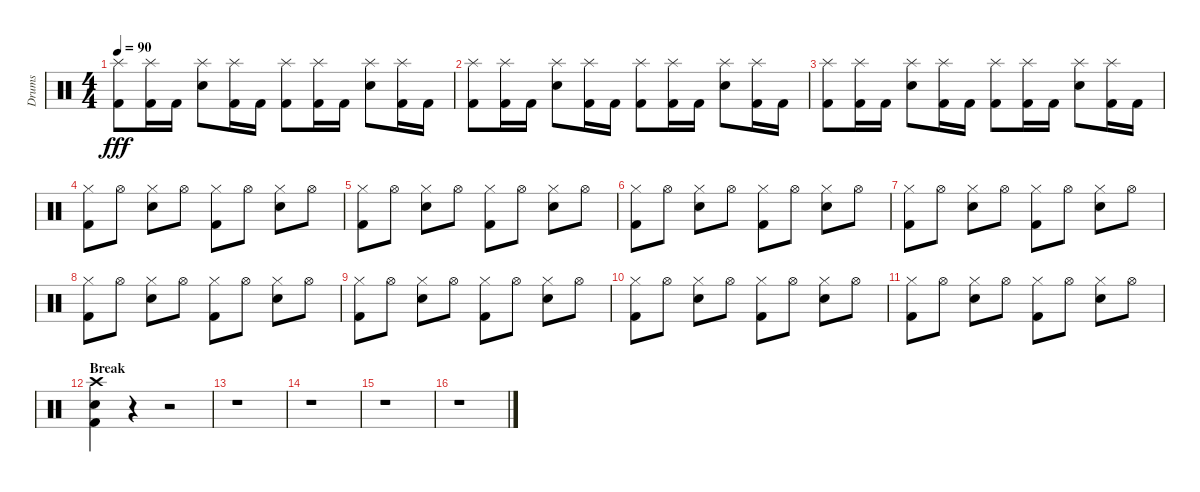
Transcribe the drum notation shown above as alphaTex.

\track ("Drums" "Drums") {instrument percussion}
\staff {score}
\articulation defaults
\ts (4 4)
\tempo 90
\clef neutral
\ks c
("Splash (hit)" "Kick (hit) 2").8{dy fff} ("Splash (hit)" "Kick (hit) 2").16 "Kick (hit) 2".16 ("Splash (hit)" "Electric Snare (hit)").8 ("Splash (hit)" "Kick (hit) 2").16 "Kick (hit) 2".16 ("Splash (hit)" "Kick (hit) 2").8 ("Splash (hit)" "Kick (hit) 2").16 "Kick (hit) 2".16 ("Splash (hit)" "Electric Snare (hit)").8 ("Splash (hit)" "Kick (hit) 2").16 "Kick (hit) 2".16 |
("Splash (hit)" "Kick (hit) 2").8 ("Splash (hit)" "Kick (hit) 2").16 "Kick (hit) 2".16 ("Splash (hit)" "Electric Snare (hit)").8 ("Splash (hit)" "Kick (hit) 2").16 "Kick (hit) 2".16 ("Splash (hit)" "Kick (hit) 2").8 ("Splash (hit)" "Kick (hit) 2").16 "Kick (hit) 2".16 ("Splash (hit)" "Electric Snare (hit)").8 ("Splash (hit)" "Kick (hit) 2").16 "Kick (hit) 2".16 |
("Splash (hit)" "Kick (hit) 2").8 ("Splash (hit)" "Kick (hit) 2").16 "Kick (hit) 2".16 ("Splash (hit)" "Electric Snare (hit)").8 ("Splash (hit)" "Kick (hit) 2").16 "Kick (hit) 2".16 ("Splash (hit)" "Kick (hit) 2").8 ("Splash (hit)" "Kick (hit) 2").16 "Kick (hit) 2".16 ("Splash (hit)" "Electric Snare (hit)").8 ("Splash (hit)" "Kick (hit) 2").16 "Kick (hit) 2".16 |
("Hi-Hat (closed)" "Kick (hit) 2").8 "Hi-Hat (open)".8 ("Hi-Hat (closed)" "Electric Snare (hit)").8 "Hi-Hat (open)".8 ("Hi-Hat (closed)" "Kick (hit) 2").8 "Hi-Hat (open)".8 ("Hi-Hat (closed)" "Electric Snare (hit)").8 "Hi-Hat (open)".8 |
("Hi-Hat (closed)" "Kick (hit) 2").8 "Hi-Hat (open)".8 ("Hi-Hat (closed)" "Electric Snare (hit)").8 "Hi-Hat (open)".8 ("Hi-Hat (closed)" "Kick (hit) 2").8 "Hi-Hat (open)".8 ("Hi-Hat (closed)" "Electric Snare (hit)").8 "Hi-Hat (open)".8 |
("Hi-Hat (closed)" "Kick (hit) 2").8 "Hi-Hat (open)".8 ("Hi-Hat (closed)" "Electric Snare (hit)").8 "Hi-Hat (open)".8 ("Hi-Hat (closed)" "Kick (hit) 2").8 "Hi-Hat (open)".8 ("Hi-Hat (closed)" "Electric Snare (hit)").8 "Hi-Hat (open)".8 |
("Hi-Hat (closed)" "Kick (hit) 2").8 "Hi-Hat (open)".8 ("Hi-Hat (closed)" "Electric Snare (hit)").8 "Hi-Hat (open)".8 ("Hi-Hat (closed)" "Kick (hit) 2").8 "Hi-Hat (open)".8 ("Hi-Hat (closed)" "Electric Snare (hit)").8 "Hi-Hat (open)".8 |
("Hi-Hat (closed)" "Kick (hit) 2").8 "Hi-Hat (open)".8 ("Hi-Hat (closed)" "Electric Snare (hit)").8 "Hi-Hat (open)".8 ("Hi-Hat (closed)" "Kick (hit) 2").8 "Hi-Hat (open)".8 ("Hi-Hat (closed)" "Electric Snare (hit)").8 "Hi-Hat (open)".8 |
("Hi-Hat (closed)" "Kick (hit) 2").8 "Hi-Hat (open)".8 ("Hi-Hat (closed)" "Electric Snare (hit)").8 "Hi-Hat (open)".8 ("Hi-Hat (closed)" "Kick (hit) 2").8 "Hi-Hat (open)".8 ("Hi-Hat (closed)" "Electric Snare (hit)").8 "Hi-Hat (open)".8 |
("Hi-Hat (closed)" "Kick (hit) 2").8 "Hi-Hat (open)".8 ("Hi-Hat (closed)" "Electric Snare (hit)").8 "Hi-Hat (open)".8 ("Hi-Hat (closed)" "Kick (hit) 2").8 "Hi-Hat (open)".8 ("Hi-Hat (closed)" "Electric Snare (hit)").8 "Hi-Hat (open)".8 |
("Hi-Hat (closed)" "Kick (hit) 2").8 "Hi-Hat (open)".8 ("Hi-Hat (closed)" "Electric Snare (hit)").8 "Hi-Hat (open)".8 ("Hi-Hat (closed)" "Kick (hit) 2").8 "Hi-Hat (open)".8 ("Hi-Hat (closed)" "Electric Snare (hit)").8 "Hi-Hat (open)".8 |
\section ("" "Break")
("Crash high (hit)" "Electric Snare (hit)" "Kick (hit) 2").4 r.4 r.2 |
r.1 |
r.1 |
r.1 |
r.1
